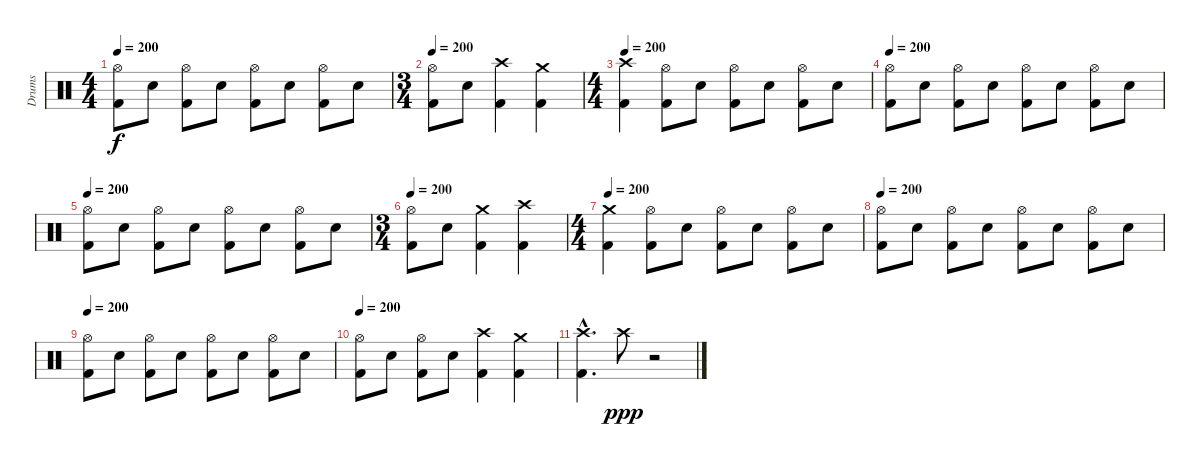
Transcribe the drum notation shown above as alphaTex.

\track ("Drums" "Drums") {instrument percussion}
\staff {score}
\articulation defaults
\ts (4 4)
\tempo 200
\clef neutral
\ks c
("Hi-Hat (open)" "Kick (hit) 2").8{dy f} "Electric Snare (hit)".8 ("Hi-Hat (open)" "Kick (hit) 2").8 "Electric Snare (hit)".8 ("Hi-Hat (open)" "Kick (hit) 2").8 "Electric Snare (hit)".8 ("Hi-Hat (open)" "Kick (hit) 2").8 "Electric Snare (hit)".8 |
\ts (3 4)
\tempo 200
("Hi-Hat (open)" "Kick (hit) 2").8 "Electric Snare (hit)".8 ("Crash high (hit)" "Kick (hit) 2").4 ("Crash medium (hit)" "Kick (hit) 2").4 |
\ts (4 4)
\tempo 200
("Crash high (hit)" "Kick (hit) 2").4 ("Hi-Hat (open)" "Kick (hit) 2").8 "Electric Snare (hit)".8 ("Hi-Hat (open)" "Kick (hit) 2").8 "Electric Snare (hit)".8 ("Hi-Hat (open)" "Kick (hit) 2").8 "Electric Snare (hit)".8 |
\tempo 200
("Hi-Hat (open)" "Kick (hit) 2").8 "Electric Snare (hit)".8 ("Hi-Hat (open)" "Kick (hit) 2").8 "Electric Snare (hit)".8 ("Hi-Hat (open)" "Kick (hit) 2").8 "Electric Snare (hit)".8 ("Hi-Hat (open)" "Kick (hit) 2").8 "Electric Snare (hit)".8 |
\tempo 200
("Hi-Hat (open)" "Kick (hit) 2").8 "Electric Snare (hit)".8 ("Hi-Hat (open)" "Kick (hit) 2").8 "Electric Snare (hit)".8 ("Hi-Hat (open)" "Kick (hit) 2").8 "Electric Snare (hit)".8 ("Hi-Hat (open)" "Kick (hit) 2").8 "Electric Snare (hit)".8 |
\ts (3 4)
\tempo 200
("Hi-Hat (open)" "Kick (hit) 2").8 "Electric Snare (hit)".8 ("Crash medium (hit)" "Kick (hit) 2").4 ("Crash high (hit)" "Kick (hit) 2").4 |
\ts (4 4)
\tempo 200
("Crash medium (hit)" "Kick (hit) 2").4 ("Hi-Hat (open)" "Kick (hit) 2").8 "Electric Snare (hit)".8 ("Hi-Hat (open)" "Kick (hit) 2").8 "Electric Snare (hit)".8 ("Hi-Hat (open)" "Kick (hit) 2").8 "Electric Snare (hit)".8 |
\tempo 200
("Hi-Hat (open)" "Kick (hit) 2").8 "Electric Snare (hit)".8 ("Hi-Hat (open)" "Kick (hit) 2").8 "Electric Snare (hit)".8 ("Hi-Hat (open)" "Kick (hit) 2").8 "Electric Snare (hit)".8 ("Hi-Hat (open)" "Kick (hit) 2").8 "Electric Snare (hit)".8 |
\tempo 200
("Hi-Hat (open)" "Kick (hit) 2").8 "Electric Snare (hit)".8 ("Hi-Hat (open)" "Kick (hit) 2").8 "Electric Snare (hit)".8 ("Hi-Hat (open)" "Kick (hit) 2").8 "Electric Snare (hit)".8 ("Hi-Hat (open)" "Kick (hit) 2").8 "Electric Snare (hit)".8 |
\tempo 200
("Hi-Hat (open)" "Kick (hit) 2").8 "Electric Snare (hit)".8 ("Hi-Hat (open)" "Kick (hit) 2").8 "Electric Snare (hit)".8 ("Crash high (hit)" "Kick (hit) 2").4 ("Crash medium (hit)" "Kick (hit) 2").4 |
("Crash high (hit)"{hac} "Kick (hit) 2"{hac}).4{d} "Crash high (hit)".8{dy ppp} r.2
